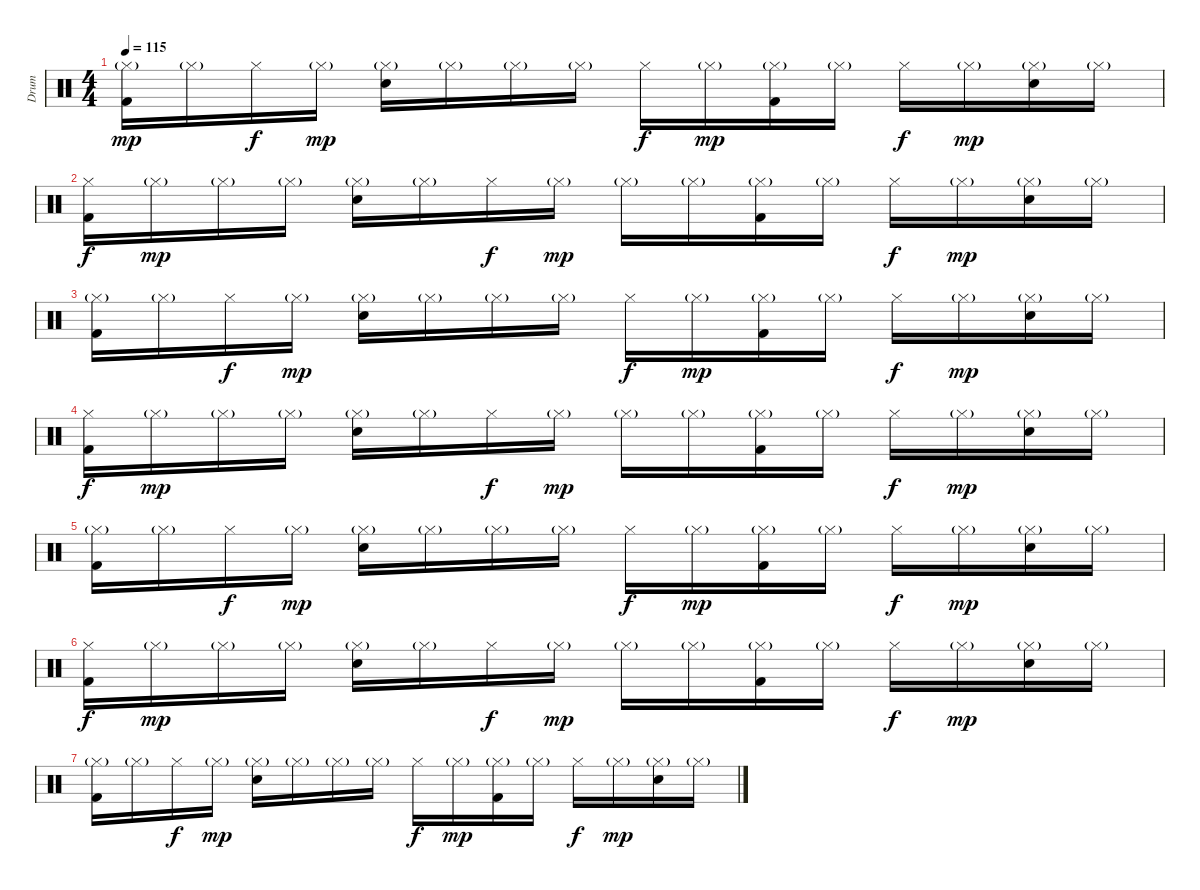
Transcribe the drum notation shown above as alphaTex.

\track ("Drum" "Drum") {instrument percussion}
\staff {score}
\articulation defaults
\ts (4 4)
\tempo 115
\clef neutral
\ks c
("Kick (hit) 2" "Hi-Hat (closed)"{g}).16{dy mp} "Hi-Hat (closed)"{g}.16 "Hi-Hat (closed)".16{dy f} "Hi-Hat (closed)"{g}.16{dy mp} ("Electric Snare (hit)" "Hi-Hat (closed)"{g}).16 "Hi-Hat (closed)"{g}.16 "Hi-Hat (closed)"{g}.16 "Hi-Hat (closed)"{g}.16 "Hi-Hat (closed)".16{dy f} "Hi-Hat (closed)"{g}.16{dy mp} ("Kick (hit) 2" "Hi-Hat (closed)"{g}).16 "Hi-Hat (closed)"{g}.16 "Hi-Hat (closed)".16{dy f} "Hi-Hat (closed)"{g}.16{dy mp} ("Electric Snare (hit)" "Hi-Hat (closed)"{g}).16 "Hi-Hat (closed)"{g}.16 |
("Kick (hit) 2" "Hi-Hat (closed)").16{dy f} "Hi-Hat (closed)"{g}.16{dy mp} "Hi-Hat (closed)"{g}.16 "Hi-Hat (closed)"{g}.16 ("Electric Snare (hit)" "Hi-Hat (closed)"{g}).16 "Hi-Hat (closed)"{g}.16 "Hi-Hat (closed)".16{dy f} "Hi-Hat (closed)"{g}.16{dy mp} "Hi-Hat (closed)"{g}.16 "Hi-Hat (closed)"{g}.16 ("Kick (hit) 2" "Hi-Hat (closed)"{g}).16 "Hi-Hat (closed)"{g}.16 "Hi-Hat (closed)".16{dy f} "Hi-Hat (closed)"{g}.16{dy mp} ("Electric Snare (hit)" "Hi-Hat (closed)"{g}).16 "Hi-Hat (closed)"{g}.16 |
("Kick (hit) 2" "Hi-Hat (closed)"{g}).16 "Hi-Hat (closed)"{g}.16 "Hi-Hat (closed)".16{dy f} "Hi-Hat (closed)"{g}.16{dy mp} ("Electric Snare (hit)" "Hi-Hat (closed)"{g}).16 "Hi-Hat (closed)"{g}.16 "Hi-Hat (closed)"{g}.16 "Hi-Hat (closed)"{g}.16 "Hi-Hat (closed)".16{dy f} "Hi-Hat (closed)"{g}.16{dy mp} ("Kick (hit) 2" "Hi-Hat (closed)"{g}).16 "Hi-Hat (closed)"{g}.16 "Hi-Hat (closed)".16{dy f} "Hi-Hat (closed)"{g}.16{dy mp} ("Electric Snare (hit)" "Hi-Hat (closed)"{g}).16 "Hi-Hat (closed)"{g}.16 |
("Kick (hit) 2" "Hi-Hat (closed)").16{dy f} "Hi-Hat (closed)"{g}.16{dy mp} "Hi-Hat (closed)"{g}.16 "Hi-Hat (closed)"{g}.16 ("Electric Snare (hit)" "Hi-Hat (closed)"{g}).16 "Hi-Hat (closed)"{g}.16 "Hi-Hat (closed)".16{dy f} "Hi-Hat (closed)"{g}.16{dy mp} "Hi-Hat (closed)"{g}.16 "Hi-Hat (closed)"{g}.16 ("Kick (hit) 2" "Hi-Hat (closed)"{g}).16 "Hi-Hat (closed)"{g}.16 "Hi-Hat (closed)".16{dy f} "Hi-Hat (closed)"{g}.16{dy mp} ("Electric Snare (hit)" "Hi-Hat (closed)"{g}).16 "Hi-Hat (closed)"{g}.16 |
("Kick (hit) 2" "Hi-Hat (closed)"{g}).16 "Hi-Hat (closed)"{g}.16 "Hi-Hat (closed)".16{dy f} "Hi-Hat (closed)"{g}.16{dy mp} ("Electric Snare (hit)" "Hi-Hat (closed)"{g}).16 "Hi-Hat (closed)"{g}.16 "Hi-Hat (closed)"{g}.16 "Hi-Hat (closed)"{g}.16 "Hi-Hat (closed)".16{dy f} "Hi-Hat (closed)"{g}.16{dy mp} ("Kick (hit) 2" "Hi-Hat (closed)"{g}).16 "Hi-Hat (closed)"{g}.16 "Hi-Hat (closed)".16{dy f} "Hi-Hat (closed)"{g}.16{dy mp} ("Electric Snare (hit)" "Hi-Hat (closed)"{g}).16 "Hi-Hat (closed)"{g}.16 |
("Kick (hit) 2" "Hi-Hat (closed)").16{dy f} "Hi-Hat (closed)"{g}.16{dy mp} "Hi-Hat (closed)"{g}.16 "Hi-Hat (closed)"{g}.16 ("Electric Snare (hit)" "Hi-Hat (closed)"{g}).16 "Hi-Hat (closed)"{g}.16 "Hi-Hat (closed)".16{dy f} "Hi-Hat (closed)"{g}.16{dy mp} "Hi-Hat (closed)"{g}.16 "Hi-Hat (closed)"{g}.16 ("Kick (hit) 2" "Hi-Hat (closed)"{g}).16 "Hi-Hat (closed)"{g}.16 "Hi-Hat (closed)".16{dy f} "Hi-Hat (closed)"{g}.16{dy mp} ("Electric Snare (hit)" "Hi-Hat (closed)"{g}).16 "Hi-Hat (closed)"{g}.16 |
("Kick (hit) 2" "Hi-Hat (closed)"{g}).16 "Hi-Hat (closed)"{g}.16 "Hi-Hat (closed)".16{dy f} "Hi-Hat (closed)"{g}.16{dy mp} ("Electric Snare (hit)" "Hi-Hat (closed)"{g}).16 "Hi-Hat (closed)"{g}.16 "Hi-Hat (closed)"{g}.16 "Hi-Hat (closed)"{g}.16 "Hi-Hat (closed)".16{dy f} "Hi-Hat (closed)"{g}.16{dy mp} ("Kick (hit) 2" "Hi-Hat (closed)"{g}).16 "Hi-Hat (closed)"{g}.16 "Hi-Hat (closed)".16{dy f} "Hi-Hat (closed)"{g}.16{dy mp} ("Electric Snare (hit)" "Hi-Hat (closed)"{g}).16 "Hi-Hat (closed)"{g}.16
